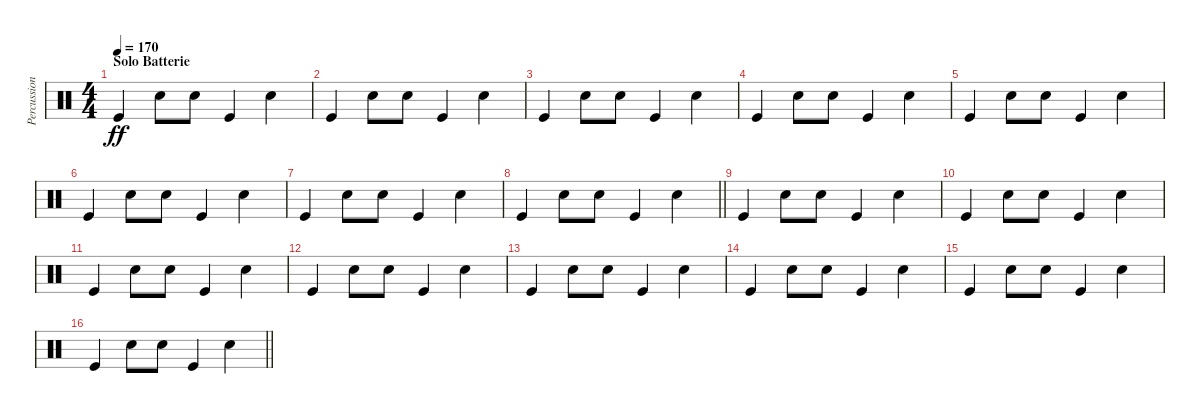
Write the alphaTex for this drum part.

\track ("Percussions" "Percussion") {instrument percussion}
\staff {score}
\articulation defaults
\ts (4 4)
\section ("" "Solo Batterie")
\tempo 170
\clef neutral
\ks c "Kick (hit)".4{dy ff} "Snare (hit) 2".8 "Snare (hit) 2".8 "Kick (hit)".4 "Snare (hit) 2".4
|
"Kick (hit)".4 "Snare (hit) 2".8 "Snare (hit) 2".8 "Kick (hit)".4 "Snare (hit) 2".4 |
"Kick (hit)".4 "Snare (hit) 2".8 "Snare (hit) 2".8 "Kick (hit)".4 "Snare (hit) 2".4 |
"Kick (hit)".4 "Snare (hit) 2".8 "Snare (hit) 2".8 "Kick (hit)".4 "Snare (hit) 2".4 |
"Kick (hit)".4 "Snare (hit) 2".8 "Snare (hit) 2".8 "Kick (hit)".4 "Snare (hit) 2".4 |
"Kick (hit)".4 "Snare (hit) 2".8 "Snare (hit) 2".8 "Kick (hit)".4 "Snare (hit) 2".4 |
"Kick (hit)".4 "Snare (hit) 2".8 "Snare (hit) 2".8 "Kick (hit)".4 "Snare (hit) 2".4 |
\barLineRight lightlight "Kick (hit)".4 "Snare (hit) 2".8 "Snare (hit) 2".8 "Kick (hit)".4 "Snare (hit) 2".4
|
"Kick (hit)".4 "Snare (hit) 2".8 "Snare (hit) 2".8 "Kick (hit)".4 "Snare (hit) 2".4 |
"Kick (hit)".4 "Snare (hit) 2".8 "Snare (hit) 2".8 "Kick (hit)".4 "Snare (hit) 2".4 |
"Kick (hit)".4 "Snare (hit) 2".8 "Snare (hit) 2".8 "Kick (hit)".4 "Snare (hit) 2".4 |
"Kick (hit)".4 "Snare (hit) 2".8 "Snare (hit) 2".8 "Kick (hit)".4 "Snare (hit) 2".4 |
"Kick (hit)".4 "Snare (hit) 2".8 "Snare (hit) 2".8 "Kick (hit)".4 "Snare (hit) 2".4 |
"Kick (hit)".4 "Snare (hit) 2".8 "Snare (hit) 2".8 "Kick (hit)".4 "Snare (hit) 2".4 |
"Kick (hit)".4 "Snare (hit) 2".8 "Snare (hit) 2".8 "Kick (hit)".4 "Snare (hit) 2".4 |
\barLineRight lightlight "Kick (hit)".4 "Snare (hit) 2".8 "Snare (hit) 2".8 "Kick (hit)".4 "Snare (hit) 2".4
